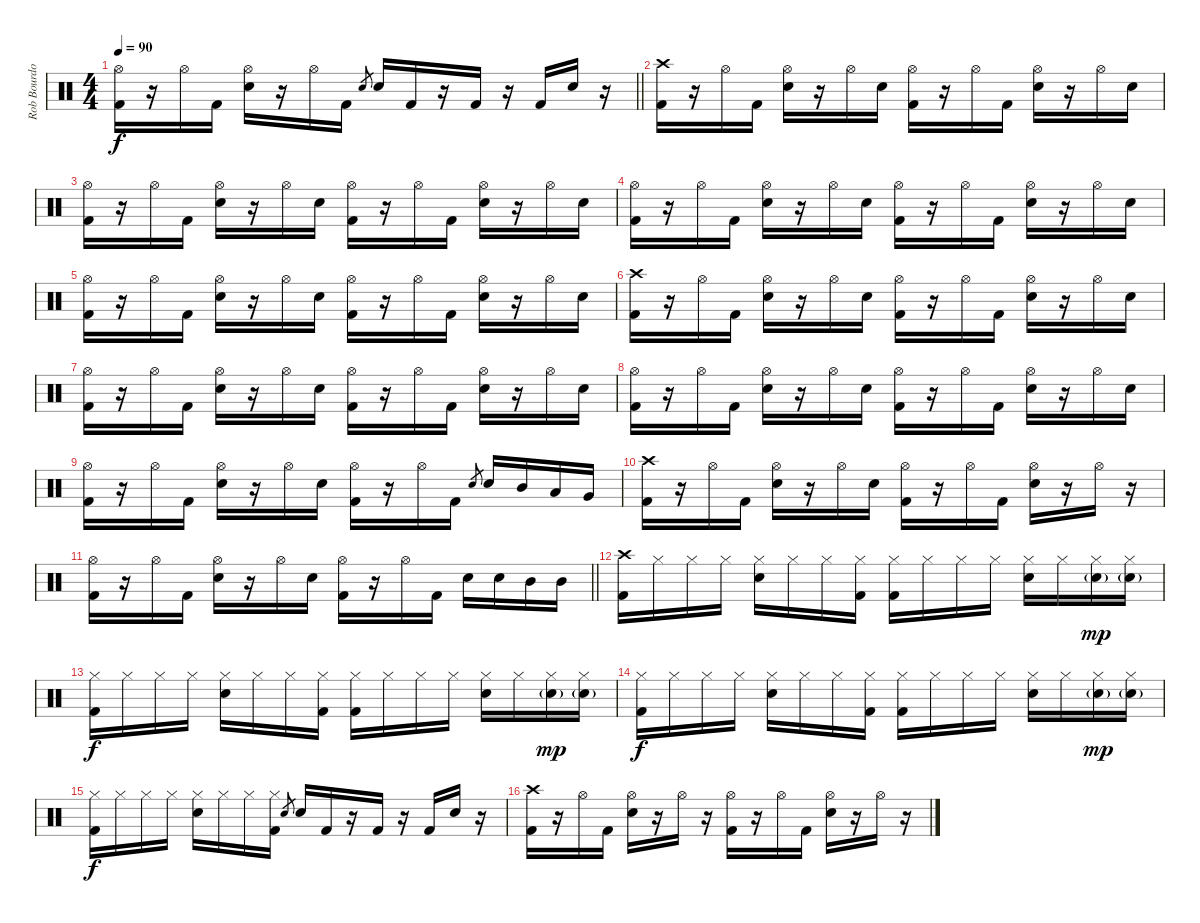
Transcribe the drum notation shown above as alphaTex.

\track ("Rob Bourdon - Drums" "Rob Bourdo") {instrument percussion}
\staff {score}
\articulation defaults
\ts (4 4)
\tempo 90
\clef neutral
\barLineRight lightlight
\ks c
("Hi-Hat (open)" "Kick (hit) 2").16{dy f} r.16 "Hi-Hat (open)".16 "Kick (hit) 2".16 ("Hi-Hat (open)" "Electric Snare (hit)").16 r.16 "Hi-Hat (open)".16 "Kick (hit) 2".16 "Electric Snare (hit)".8{gr} "Electric Snare (hit)".16 "Kick (hit) 2".16 r.16 "Kick (hit) 2".16 r.16 "Kick (hit) 2".16 "Electric Snare (hit)".16 r.16 |
("Crash high (hit)" "Kick (hit) 2").16 r.16 "Hi-Hat (open)".16 "Kick (hit) 2".16 ("Hi-Hat (open)" "Electric Snare (hit)").16 r.16 "Hi-Hat (open)".16 "Electric Snare (hit)".16 ("Hi-Hat (open)" "Kick (hit) 2").16 r.16 "Hi-Hat (open)".16 "Kick (hit) 2".16 ("Hi-Hat (open)" "Electric Snare (hit)").16 r.16 "Hi-Hat (open)".16 "Electric Snare (hit)".16 |
("Hi-Hat (open)" "Kick (hit) 2").16 r.16 "Hi-Hat (open)".16 "Kick (hit) 2".16 ("Hi-Hat (open)" "Electric Snare (hit)").16 r.16 "Hi-Hat (open)".16 "Electric Snare (hit)".16 ("Hi-Hat (open)" "Kick (hit) 2").16 r.16 "Hi-Hat (open)".16 "Kick (hit) 2".16 ("Hi-Hat (open)" "Electric Snare (hit)").16 r.16 "Hi-Hat (open)".16 "Electric Snare (hit)".16 |
("Hi-Hat (open)" "Kick (hit) 2").16 r.16 "Hi-Hat (open)".16 "Kick (hit) 2".16 ("Hi-Hat (open)" "Electric Snare (hit)").16 r.16 "Hi-Hat (open)".16 "Electric Snare (hit)".16 ("Hi-Hat (open)" "Kick (hit) 2").16 r.16 "Hi-Hat (open)".16 "Kick (hit) 2".16 ("Hi-Hat (open)" "Electric Snare (hit)").16 r.16 "Hi-Hat (open)".16 "Electric Snare (hit)".16 |
("Hi-Hat (open)" "Kick (hit) 2").16 r.16 "Hi-Hat (open)".16 "Kick (hit) 2".16 ("Hi-Hat (open)" "Electric Snare (hit)").16 r.16 "Hi-Hat (open)".16 "Electric Snare (hit)".16 ("Hi-Hat (open)" "Kick (hit) 2").16 r.16 "Hi-Hat (open)".16 "Kick (hit) 2".16 ("Hi-Hat (open)" "Electric Snare (hit)").16 r.16 "Hi-Hat (open)".16 "Electric Snare (hit)".16 |
("Crash high (hit)" "Kick (hit) 2").16 r.16 "Hi-Hat (open)".16 "Kick (hit) 2".16 ("Hi-Hat (open)" "Electric Snare (hit)").16 r.16 "Hi-Hat (open)".16 "Electric Snare (hit)".16 ("Hi-Hat (open)" "Kick (hit) 2").16 r.16 "Hi-Hat (open)".16 "Kick (hit) 2".16 ("Hi-Hat (open)" "Electric Snare (hit)").16 r.16 "Hi-Hat (open)".16 "Electric Snare (hit)".16 |
("Hi-Hat (open)" "Kick (hit) 2").16 r.16 "Hi-Hat (open)".16 "Kick (hit) 2".16 ("Hi-Hat (open)" "Electric Snare (hit)").16 r.16 "Hi-Hat (open)".16 "Electric Snare (hit)".16 ("Hi-Hat (open)" "Kick (hit) 2").16 r.16 "Hi-Hat (open)".16 "Kick (hit) 2".16 ("Hi-Hat (open)" "Electric Snare (hit)").16 r.16 "Hi-Hat (open)".16 "Electric Snare (hit)".16 |
("Hi-Hat (open)" "Kick (hit) 2").16 r.16 "Hi-Hat (open)".16 "Kick (hit) 2".16 ("Hi-Hat (open)" "Electric Snare (hit)").16 r.16 "Hi-Hat (open)".16 "Electric Snare (hit)".16 ("Hi-Hat (open)" "Kick (hit) 2").16 r.16 "Hi-Hat (open)".16 "Kick (hit) 2".16 ("Hi-Hat (open)" "Electric Snare (hit)").16 r.16 "Hi-Hat (open)".16 "Electric Snare (hit)".16 |
("Hi-Hat (open)" "Kick (hit) 2").16 r.16 "Hi-Hat (open)".16 "Kick (hit) 2".16 ("Hi-Hat (open)" "Electric Snare (hit)").16 r.16 "Hi-Hat (open)".16 "Electric Snare (hit)".16 ("Hi-Hat (open)" "Kick (hit) 2").16 r.16 "Hi-Hat (open)".16 "Kick (hit) 2".16 "Electric Snare (hit)".8{gr} "Electric Snare (hit)".16 "Mid Tom (hit)".16 "Low Tom (hit)".16 "Very Low Tom (hit)".16 |
("Crash high (hit)" "Kick (hit) 2").16 r.16 "Hi-Hat (open)".16 "Kick (hit) 2".16 ("Hi-Hat (open)" "Electric Snare (hit)").16 r.16 "Hi-Hat (open)".16 "Electric Snare (hit)".16 ("Hi-Hat (open)" "Kick (hit) 2").16 r.16 "Hi-Hat (open)".16 "Kick (hit) 2".16 ("Hi-Hat (open)" "Electric Snare (hit)").16 r.16 "Hi-Hat (open)".16 r.16 |
\barLineRight lightlight
("Hi-Hat (open)" "Kick (hit) 2").16 r.16 "Hi-Hat (open)".16 "Kick (hit) 2".16 ("Hi-Hat (open)" "Electric Snare (hit)").16 r.16 "Hi-Hat (open)".16 "Electric Snare (hit)".16 ("Hi-Hat (open)" "Kick (hit) 2").16 r.16 "Hi-Hat (open)".16 "Kick (hit) 2".16 "Electric Snare (hit)".16 "Electric Snare (hit)".16 "Mid Tom (hit)".16 "Mid Tom (hit)".16 |
("Crash high (hit)" "Kick (hit) 2").16 "Hi-Hat (closed)".16 "Hi-Hat (closed)".16 "Hi-Hat (closed)".16 ("Hi-Hat (closed)" "Hand Clap (hit)").16 "Hi-Hat (closed)".16 "Hi-Hat (closed)".16 ("Hi-Hat (closed)" "Kick (hit) 2").16 ("Hi-Hat (closed)" "Kick (hit) 2").16 "Hi-Hat (closed)".16 "Hi-Hat (closed)".16 "Hi-Hat (closed)".16 ("Hi-Hat (closed)" "Hand Clap (hit)").16 "Hi-Hat (closed)".16 ("Hi-Hat (closed)" "Hand Clap (hit)"{g}).16{dy mp} ("Hi-Hat (closed)" "Hand Clap (hit)"{g}).16 |
("Hi-Hat (closed)" "Kick (hit) 2").16{dy f} "Hi-Hat (closed)".16 "Hi-Hat (closed)".16 "Hi-Hat (closed)".16 ("Hi-Hat (closed)" "Hand Clap (hit)").16 "Hi-Hat (closed)".16 "Hi-Hat (closed)".16 ("Hi-Hat (closed)" "Kick (hit) 2").16 ("Hi-Hat (closed)" "Kick (hit) 2").16 "Hi-Hat (closed)".16 "Hi-Hat (closed)".16 "Hi-Hat (closed)".16 ("Hi-Hat (closed)" "Hand Clap (hit)").16 "Hi-Hat (closed)".16 ("Hi-Hat (closed)" "Hand Clap (hit)"{g}).16{dy mp} ("Hi-Hat (closed)" "Hand Clap (hit)"{g}).16 |
("Hi-Hat (closed)" "Kick (hit) 2").16{dy f} "Hi-Hat (closed)".16 "Hi-Hat (closed)".16 "Hi-Hat (closed)".16 ("Hi-Hat (closed)" "Hand Clap (hit)").16 "Hi-Hat (closed)".16 "Hi-Hat (closed)".16 ("Hi-Hat (closed)" "Kick (hit) 2").16 ("Hi-Hat (closed)" "Kick (hit) 2").16 "Hi-Hat (closed)".16 "Hi-Hat (closed)".16 "Hi-Hat (closed)".16 ("Hi-Hat (closed)" "Hand Clap (hit)").16 "Hi-Hat (closed)".16 ("Hi-Hat (closed)" "Hand Clap (hit)"{g}).16{dy mp} ("Hi-Hat (closed)" "Hand Clap (hit)"{g}).16 |
("Hi-Hat (closed)" "Kick (hit) 2").16{dy f} "Hi-Hat (closed)".16 "Hi-Hat (closed)".16 "Hi-Hat (closed)".16 ("Hi-Hat (closed)" "Hand Clap (hit)").16 "Hi-Hat (closed)".16 "Hi-Hat (closed)".16 ("Hi-Hat (closed)" "Kick (hit) 2").16 "Electric Snare (hit)".8{gr} "Electric Snare (hit)".16 "Kick (hit) 2".16 r.16 "Kick (hit) 2".16 r.16 "Kick (hit) 2".16 "Electric Snare (hit)".16 r.16 |
("Crash high (hit)" "Kick (hit) 2").16 r.16 "Hi-Hat (open)".16 "Kick (hit) 2".16 ("Hi-Hat (open)" "Electric Snare (hit)").16 r.16 "Hi-Hat (open)".16 r.16 ("Hi-Hat (open)" "Kick (hit) 2").16 r.16 "Hi-Hat (open)".16 "Kick (hit) 2".16 ("Hi-Hat (open)" "Electric Snare (hit)").16 r.16 "Hi-Hat (open)".16 r.16
